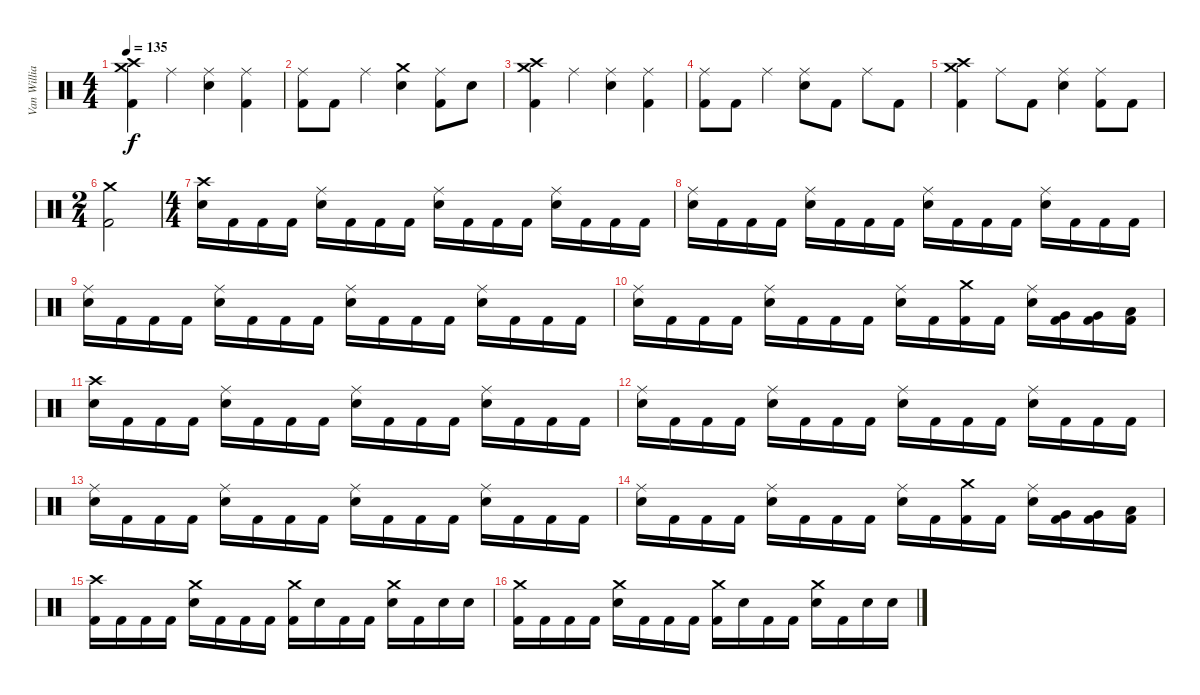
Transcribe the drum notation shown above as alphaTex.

\track ("Van Williams" "Van Willia") {instrument percussion}
\staff {score}
\articulation defaults
\ts (4 4)
\tempo 135
\clef neutral
\ks c
("Crash medium (hit)" "Crash high (hit)" "Kick (hit) 2").4{dy f} "Ride (middle)".4 ("Ride (middle)" "Electric Snare (hit)").4 ("Ride (middle)" "Kick (hit) 2").4 |
("Ride (middle)" "Kick (hit) 2").8 "Kick (hit) 2".8 "Ride (middle)".4 ("Crash medium (hit)" "Electric Snare (hit)").4 ("Ride (middle)" "Kick (hit) 2").8 "Electric Snare (hit)".8 |
("Crash medium (hit)" "Crash high (hit)" "Kick (hit) 2").4 "Ride (middle)".4 ("Ride (middle)" "Electric Snare (hit)").4 ("Ride (middle)" "Kick (hit) 2").4 |
("Ride (middle)" "Kick (hit) 2").8 "Kick (hit) 2".8 "Ride (middle)".4 ("Ride (middle)" "Electric Snare (hit)").8 "Kick (hit) 2".8 "Ride (middle)".8 "Kick (hit) 2".8 |
("Crash medium (hit)" "Crash high (hit)" "Kick (hit) 2").4 "Ride (middle)".8 "Kick (hit) 2".8 ("Ride (middle)" "Electric Snare (hit)").4 ("Ride (middle)" "Kick (hit) 2").8 "Kick (hit) 2".8 |
\ts (2 4)
("Crash medium (hit)" "Kick (hit) 2").2 |
\ts (4 4)
("Crash high (hit)" "Electric Snare (hit)").16 "Kick (hit) 2".16 "Kick (hit) 2".16 "Kick (hit) 2".16 ("Ride (middle)" "Electric Snare (hit)").16 "Kick (hit) 2".16 "Kick (hit) 2".16 "Kick (hit) 2".16 ("Ride (middle)" "Electric Snare (hit)").16 "Kick (hit) 2".16 "Kick (hit) 2".16 "Kick (hit) 2".16 ("Ride (middle)" "Electric Snare (hit)").16 "Kick (hit) 2".16 "Kick (hit) 2".16 "Kick (hit) 2".16 |
("Ride (middle)" "Electric Snare (hit)").16 "Kick (hit) 2".16 "Kick (hit) 2".16 "Kick (hit) 2".16 ("Ride (middle)" "Electric Snare (hit)").16 "Kick (hit) 2".16 "Kick (hit) 2".16 "Kick (hit) 2".16 ("Ride (middle)" "Electric Snare (hit)").16 "Kick (hit) 2".16 "Kick (hit) 2".16 "Kick (hit) 2".16 ("Ride (middle)" "Electric Snare (hit)").16 "Kick (hit) 2".16 "Kick (hit) 2".16 "Kick (hit) 2".16 |
("Ride (middle)" "Electric Snare (hit)").16 "Kick (hit) 2".16 "Kick (hit) 2".16 "Kick (hit) 2".16 ("Ride (middle)" "Electric Snare (hit)").16 "Kick (hit) 2".16 "Kick (hit) 2".16 "Kick (hit) 2".16 ("Ride (middle)" "Electric Snare (hit)").16 "Kick (hit) 2".16 "Kick (hit) 2".16 "Kick (hit) 2".16 ("Ride (middle)" "Electric Snare (hit)").16 "Kick (hit) 2".16 "Kick (hit) 2".16 "Kick (hit) 2".16 |
("Ride (middle)" "Electric Snare (hit)").16 "Kick (hit) 2".16 "Kick (hit) 2".16 "Kick (hit) 2".16 ("Ride (middle)" "Electric Snare (hit)").16 "Kick (hit) 2".16 "Kick (hit) 2".16 "Kick (hit) 2".16 ("Ride (middle)" "Electric Snare (hit)").16 "Kick (hit) 2".16 ("Crash medium (hit)" "Kick (hit) 2").16 "Kick (hit) 2".16 ("Ride (middle)" "Electric Snare (hit)").16 ("Very Low Tom (hit)" "Kick (hit) 2").16 ("Very Low Tom (hit)" "Kick (hit) 2").16 ("Low Floor Tom (hit)" "Kick (hit) 2").16 |
("Crash high (hit)" "Electric Snare (hit)").16 "Kick (hit) 2".16 "Kick (hit) 2".16 "Kick (hit) 2".16 ("Ride (middle)" "Electric Snare (hit)").16 "Kick (hit) 2".16 "Kick (hit) 2".16 "Kick (hit) 2".16 ("Ride (middle)" "Electric Snare (hit)").16 "Kick (hit) 2".16 "Kick (hit) 2".16 "Kick (hit) 2".16 ("Ride (middle)" "Electric Snare (hit)").16 "Kick (hit) 2".16 "Kick (hit) 2".16 "Kick (hit) 2".16 |
("Ride (middle)" "Electric Snare (hit)").16 "Kick (hit) 2".16 "Kick (hit) 2".16 "Kick (hit) 2".16 ("Ride (middle)" "Electric Snare (hit)").16 "Kick (hit) 2".16 "Kick (hit) 2".16 "Kick (hit) 2".16 ("Ride (middle)" "Electric Snare (hit)").16 "Kick (hit) 2".16 "Kick (hit) 2".16 "Kick (hit) 2".16 ("Ride (middle)" "Electric Snare (hit)").16 "Kick (hit) 2".16 "Kick (hit) 2".16 "Kick (hit) 2".16 |
("Ride (middle)" "Electric Snare (hit)").16 "Kick (hit) 2".16 "Kick (hit) 2".16 "Kick (hit) 2".16 ("Ride (middle)" "Electric Snare (hit)").16 "Kick (hit) 2".16 "Kick (hit) 2".16 "Kick (hit) 2".16 ("Ride (middle)" "Electric Snare (hit)").16 "Kick (hit) 2".16 "Kick (hit) 2".16 "Kick (hit) 2".16 ("Ride (middle)" "Electric Snare (hit)").16 "Kick (hit) 2".16 "Kick (hit) 2".16 "Kick (hit) 2".16 |
("Ride (middle)" "Electric Snare (hit)").16 "Kick (hit) 2".16 "Kick (hit) 2".16 "Kick (hit) 2".16 ("Ride (middle)" "Electric Snare (hit)").16 "Kick (hit) 2".16 "Kick (hit) 2".16 "Kick (hit) 2".16 ("Ride (middle)" "Electric Snare (hit)").16 "Kick (hit) 2".16 ("Crash medium (hit)" "Kick (hit) 2").16 "Kick (hit) 2".16 ("Ride (middle)" "Electric Snare (hit)").16 ("Very Low Tom (hit)" "Kick (hit) 2").16 ("Very Low Tom (hit)" "Kick (hit) 2").16 ("Low Floor Tom (hit)" "Kick (hit) 2").16 |
("Crash high (hit)" "Kick (hit) 2").16 "Kick (hit) 2".16 "Kick (hit) 2".16 "Kick (hit) 2".16 ("Crash medium (hit)" "Electric Snare (hit)").16 "Kick (hit) 2".16 "Kick (hit) 2".16 "Kick (hit) 2".16 ("Crash medium (hit)" "Kick (hit) 2").16 "Electric Snare (hit)".16 "Kick (hit) 2".16 "Kick (hit) 2".16 ("Crash medium (hit)" "Electric Snare (hit)").16 "Kick (hit) 2".16 "Electric Snare (hit)".16 "Electric Snare (hit)".16 |
("Crash medium (hit)" "Kick (hit) 2").16 "Kick (hit) 2".16 "Kick (hit) 2".16 "Kick (hit) 2".16 ("Crash medium (hit)" "Electric Snare (hit)").16 "Kick (hit) 2".16 "Kick (hit) 2".16 "Kick (hit) 2".16 ("Crash medium (hit)" "Kick (hit) 2").16 "Electric Snare (hit)".16 "Kick (hit) 2".16 "Kick (hit) 2".16 ("Crash medium (hit)" "Electric Snare (hit)").16 "Kick (hit) 2".16 "Electric Snare (hit)".16 "Electric Snare (hit)".16
